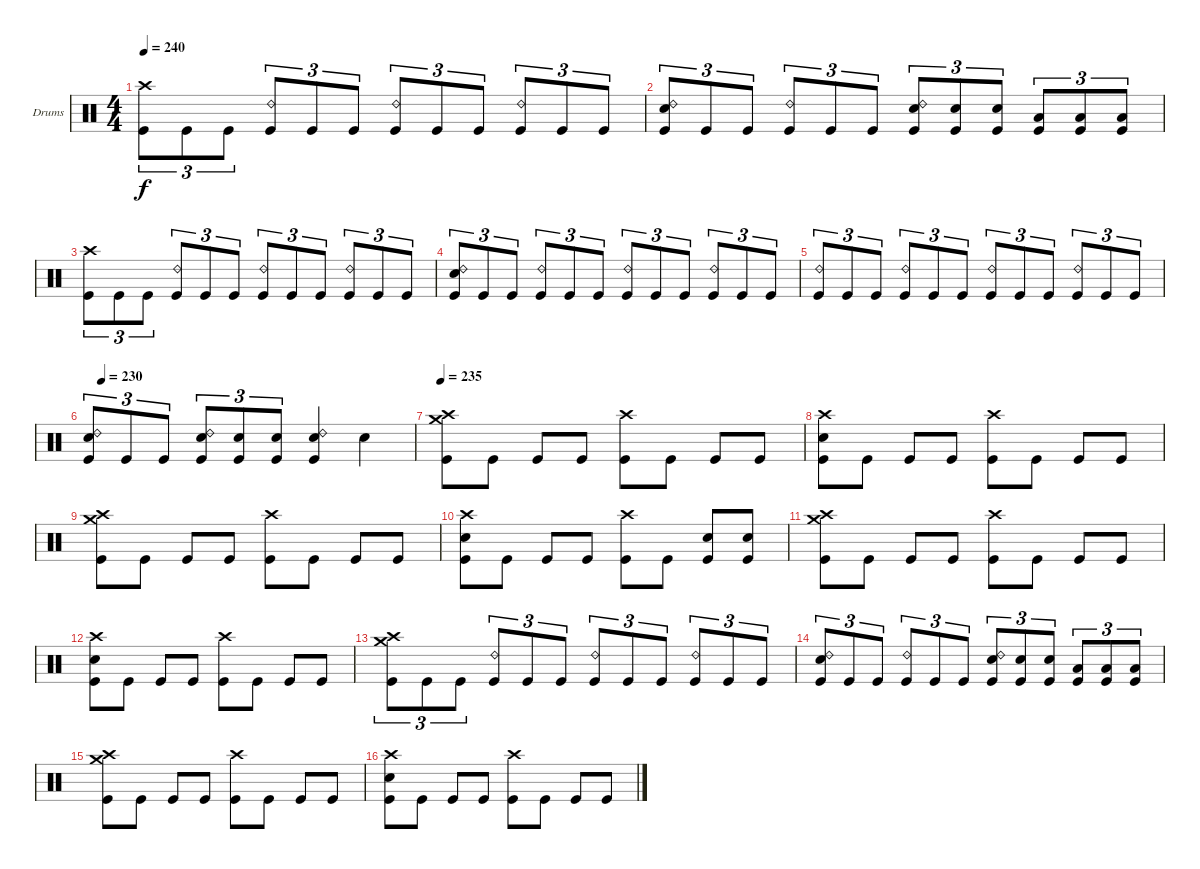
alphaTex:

\bracketExtendMode groupsimilarinstruments
\firstSystemTrackNameOrientation horizontal
\otherSystemsTrackNameOrientation horizontal
\track ("Drumkit" "Drums") {instrument percussion}
\staff {score}
\articulation defaults
\ts (4 4)
\tempo 240
\clef neutral
\ks c
("Crash high (hit)" "Kick (hit)").8{tu (3 2) dy f} "Kick (hit)".8{tu (3 2)} "Kick (hit)".8{tu (3 2)} ("Ride (bell) 2" "Kick (hit)").8{tu (3 2)} "Kick (hit)".8{tu (3 2)} "Kick (hit)".8{tu (3 2)} ("Ride (bell) 2" "Kick (hit)").8{tu (3 2)} "Kick (hit)".8{tu (3 2)} "Kick (hit)".8{tu (3 2)} ("Ride (bell) 2" "Kick (hit)").8{tu (3 2)} "Kick (hit)".8{tu (3 2)} "Kick (hit)".8{tu (3 2)} |
("Ride (bell) 2" "Snare (hit) 2" "Kick (hit)").8{tu (3 2)} "Kick (hit)".8{tu (3 2)} "Kick (hit)".8{tu (3 2)} ("Ride (bell) 2" "Kick (hit)").8{tu (3 2)} "Kick (hit)".8{tu (3 2)} "Kick (hit)".8{tu (3 2)} ("Ride (bell) 2" "Snare (hit) 2" "Kick (hit)").8{tu (3 2)} ("Snare (hit) 2" "Kick (hit)").8{tu (3 2)} ("Snare (hit) 2" "Kick (hit)").8{tu (3 2)} ("Low Tom (hit)" "Kick (hit)").8{tu (3 2)} ("Low Tom (hit)" "Kick (hit)").8{tu (3 2)} ("Low Tom (hit)" "Kick (hit)").8{tu (3 2)} |
("Crash high (hit)" "Kick (hit)").8{tu (3 2)} "Kick (hit)".8{tu (3 2)} "Kick (hit)".8{tu (3 2)} ("Ride (bell) 2" "Kick (hit)").8{tu (3 2)} "Kick (hit)".8{tu (3 2)} "Kick (hit)".8{tu (3 2)} ("Ride (bell) 2" "Kick (hit)").8{tu (3 2)} "Kick (hit)".8{tu (3 2)} "Kick (hit)".8{tu (3 2)} ("Ride (bell) 2" "Kick (hit)").8{tu (3 2)} "Kick (hit)".8{tu (3 2)} "Kick (hit)".8{tu (3 2)} |
("Ride (bell) 2" "Snare (hit) 2" "Kick (hit)").8{tu (3 2)} "Kick (hit)".8{tu (3 2)} "Kick (hit)".8{tu (3 2)} ("Ride (bell) 2" "Kick (hit)").8{tu (3 2)} "Kick (hit)".8{tu (3 2)} "Kick (hit)".8{tu (3 2)} ("Ride (bell) 2" "Kick (hit)").8{tu (3 2)} "Kick (hit)".8{tu (3 2)} "Kick (hit)".8{tu (3 2)} ("Ride (bell) 2" "Kick (hit)").8{tu (3 2)} "Kick (hit)".8{tu (3 2)} "Kick (hit)".8{tu (3 2)} |
("Ride (bell) 2" "Kick (hit)").8{tu (3 2)} "Kick (hit)".8{tu (3 2)} "Kick (hit)".8{tu (3 2)} ("Ride (bell) 2" "Kick (hit)").8{tu (3 2)} "Kick (hit)".8{tu (3 2)} "Kick (hit)".8{tu (3 2)} ("Ride (bell) 2" "Kick (hit)").8{tu (3 2)} "Kick (hit)".8{tu (3 2)} "Kick (hit)".8{tu (3 2)} ("Ride (bell) 2" "Kick (hit)").8{tu (3 2)} "Kick (hit)".8{tu (3 2)} "Kick (hit)".8{tu (3 2)} |
\tempo (230 0.03125)
("Ride (bell) 2" "Snare (hit) 2" "Kick (hit)").8{tu (3 2)} "Kick (hit)".8{tu (3 2)} "Kick (hit)".8{tu (3 2)} ("Ride (bell) 2" "Snare (hit) 2" "Kick (hit)").8{tu (3 2)} ("Snare (hit) 2" "Kick (hit)").8{tu (3 2)} ("Snare (hit) 2" "Kick (hit)").8{tu (3 2)} ("Ride (bell) 2" "Snare (hit) 2" "Kick (hit)").4 "Snare (hit) 2".4 |
\tempo 235
("Crash high (hit)" "Crash medium (hit)" "Kick (hit)").8 "Kick (hit)".8 "Kick (hit)".8 "Kick (hit)".8 ("Crash high (hit)" "Kick (hit)").8 "Kick (hit)".8 "Kick (hit)".8 "Kick (hit)".8 |
("Crash high (hit)" "Snare (hit) 2" "Kick (hit)").8 "Kick (hit)".8 "Kick (hit)".8 "Kick (hit)".8 ("Crash high (hit)" "Kick (hit)").8 "Kick (hit)".8 "Kick (hit)".8 "Kick (hit)".8 |
("Crash high (hit)" "Crash medium (hit)" "Kick (hit)").8 "Kick (hit)".8 "Kick (hit)".8 "Kick (hit)".8 ("Crash high (hit)" "Kick (hit)").8 "Kick (hit)".8 "Kick (hit)".8 "Kick (hit)".8 |
("Crash high (hit)" "Snare (hit) 2" "Kick (hit)").8 "Kick (hit)".8 "Kick (hit)".8 "Kick (hit)".8 ("Crash high (hit)" "Kick (hit)").8 "Kick (hit)".8 ("Snare (hit) 2" "Kick (hit)").8 ("Snare (hit) 2" "Kick (hit)").8 |
("Crash high (hit)" "Crash medium (hit)" "Kick (hit)").8 "Kick (hit)".8 "Kick (hit)".8 "Kick (hit)".8 ("Crash high (hit)" "Kick (hit)").8 "Kick (hit)".8 "Kick (hit)".8 "Kick (hit)".8 |
("Crash high (hit)" "Snare (hit) 2" "Kick (hit)").8 "Kick (hit)".8 "Kick (hit)".8 "Kick (hit)".8 ("Crash high (hit)" "Kick (hit)").8 "Kick (hit)".8 "Kick (hit)".8 "Kick (hit)".8 |
("Crash high (hit)" "Crash medium (hit)" "Kick (hit)").8{tu (3 2)} "Kick (hit)".8{tu (3 2)} "Kick (hit)".8{tu (3 2)} ("Ride (bell) 2" "Kick (hit)").8{tu (3 2)} "Kick (hit)".8{tu (3 2)} "Kick (hit)".8{tu (3 2)} ("Ride (bell) 2" "Kick (hit)").8{tu (3 2)} "Kick (hit)".8{tu (3 2)} "Kick (hit)".8{tu (3 2)} ("Ride (bell) 2" "Kick (hit)").8{tu (3 2)} "Kick (hit)".8{tu (3 2)} "Kick (hit)".8{tu (3 2)} |
("Ride (bell) 2" "Snare (hit) 2" "Kick (hit)").8{tu (3 2)} "Kick (hit)".8{tu (3 2)} "Kick (hit)".8{tu (3 2)} ("Ride (bell) 2" "Kick (hit)").8{tu (3 2)} "Kick (hit)".8{tu (3 2)} "Kick (hit)".8{tu (3 2)} ("Ride (bell) 2" "Snare (hit) 2" "Kick (hit)").8{tu (3 2)} ("Snare (hit) 2" "Kick (hit)").8{tu (3 2)} ("Snare (hit) 2" "Kick (hit)").8{tu (3 2)} ("Low Tom (hit)" "Kick (hit)").8{tu (3 2)} ("Low Tom (hit)" "Kick (hit)").8{tu (3 2)} ("Low Tom (hit)" "Kick (hit)").8{tu (3 2)} |
("Crash high (hit)" "Crash medium (hit)" "Kick (hit)").8 "Kick (hit)".8 "Kick (hit)".8 "Kick (hit)".8 ("Crash high (hit)" "Kick (hit)").8 "Kick (hit)".8 "Kick (hit)".8 "Kick (hit)".8 |
("Crash high (hit)" "Snare (hit) 2" "Kick (hit)").8 "Kick (hit)".8 "Kick (hit)".8 "Kick (hit)".8 ("Crash high (hit)" "Kick (hit)").8 "Kick (hit)".8 "Kick (hit)".8 "Kick (hit)".8
